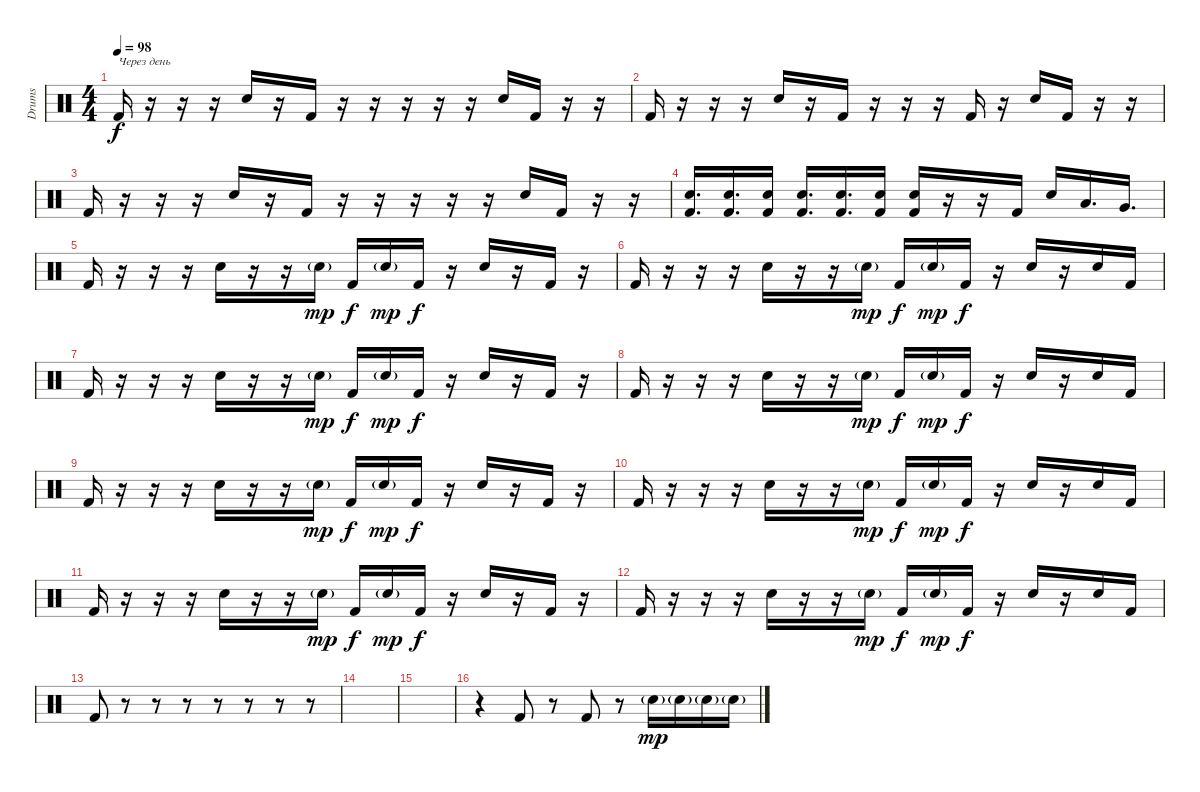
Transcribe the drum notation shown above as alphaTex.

\track ("Drums" "Drums") {instrument percussion}
\staff {score}
\articulation defaults
\ts (4 4)
\tempo 98
\clef neutral
\ks c "Kick (hit) 2".16{txt "Через день" dy f}
r.16 r.16 r.16 "Electric Snare (hit)".16 r.16 "Kick (hit) 2".16 r.16 r.16 r.16 r.16 r.16 "Electric Snare (hit)".16 "Kick (hit) 2".16 r.16 r.16 |
"Kick (hit) 2".16 r.16 r.16 r.16 "Electric Snare (hit)".16 r.16 "Kick (hit) 2".16 r.16 r.16 r.16 "Kick (hit) 2".16 r.16 "Electric Snare (hit)".16 "Kick (hit) 2".16 r.16 r.16 |
"Kick (hit) 2".16 r.16 r.16 r.16 "Electric Snare (hit)".16 r.16 "Kick (hit) 2".16 r.16 r.16 r.16 r.16 r.16 "Electric Snare (hit)".16 "Kick (hit) 2".16 r.16 r.16 |
("Kick (hit) 2" "Electric Snare (hit)").16{d} ("Kick (hit) 2" "Electric Snare (hit)").16{d} ("Kick (hit) 2" "Electric Snare (hit)").16 ("Kick (hit) 2" "Electric Snare (hit)").16{d} ("Kick (hit) 2" "Electric Snare (hit)").16{d} ("Kick (hit) 2" "Electric Snare (hit)").16 ("Kick (hit) 2" "Electric Snare (hit)").16 r.16 r.16 "Kick (hit) 2".16 "Electric Snare (hit)".16 "Low Tom (hit)".16{d} "Very Low Tom (hit)".16{d} |
"Kick (hit) 2".16 r.16 r.16 r.16 "Electric Snare (hit)".16 r.16 r.16 "Electric Snare (hit)"{g}.16{dy mp} "Kick (hit) 2".16{dy f} "Electric Snare (hit)"{g}.16{dy mp} "Kick (hit) 2".16{dy f} r.16 "Electric Snare (hit)".16 r.16 "Kick (hit) 2".16 r.16 |
"Kick (hit) 2".16 r.16 r.16 r.16 "Electric Snare (hit)".16 r.16 r.16 "Electric Snare (hit)"{g}.16{dy mp} "Kick (hit) 2".16{dy f} "Electric Snare (hit)"{g}.16{dy mp} "Kick (hit) 2".16{dy f} r.16 "Electric Snare (hit)".16 r.16 "Electric Snare (hit)".16 "Kick (hit) 2".16 |
"Kick (hit) 2".16 r.16 r.16 r.16 "Electric Snare (hit)".16 r.16 r.16 "Electric Snare (hit)"{g}.16{dy mp} "Kick (hit) 2".16{dy f} "Electric Snare (hit)"{g}.16{dy mp} "Kick (hit) 2".16{dy f} r.16 "Electric Snare (hit)".16 r.16 "Kick (hit) 2".16 r.16 |
"Kick (hit) 2".16 r.16 r.16 r.16 "Electric Snare (hit)".16 r.16 r.16 "Electric Snare (hit)"{g}.16{dy mp} "Kick (hit) 2".16{dy f} "Electric Snare (hit)"{g}.16{dy mp} "Kick (hit) 2".16{dy f} r.16 "Electric Snare (hit)".16 r.16 "Electric Snare (hit)".16 "Kick (hit) 2".16 |
"Kick (hit) 2".16 r.16 r.16 r.16 "Electric Snare (hit)".16 r.16 r.16 "Electric Snare (hit)"{g}.16{dy mp} "Kick (hit) 2".16{dy f} "Electric Snare (hit)"{g}.16{dy mp} "Kick (hit) 2".16{dy f} r.16 "Electric Snare (hit)".16 r.16 "Kick (hit) 2".16 r.16 |
"Kick (hit) 2".16 r.16 r.16 r.16 "Electric Snare (hit)".16 r.16 r.16 "Electric Snare (hit)"{g}.16{dy mp} "Kick (hit) 2".16{dy f} "Electric Snare (hit)"{g}.16{dy mp} "Kick (hit) 2".16{dy f} r.16 "Electric Snare (hit)".16 r.16 "Electric Snare (hit)".16 "Kick (hit) 2".16 |
"Kick (hit) 2".16 r.16 r.16 r.16 "Electric Snare (hit)".16 r.16 r.16 "Electric Snare (hit)"{g}.16{dy mp} "Kick (hit) 2".16{dy f} "Electric Snare (hit)"{g}.16{dy mp} "Kick (hit) 2".16{dy f} r.16 "Electric Snare (hit)".16 r.16 "Kick (hit) 2".16 r.16 |
"Kick (hit) 2".16 r.16 r.16 r.16 "Electric Snare (hit)".16 r.16 r.16 "Electric Snare (hit)"{g}.16{dy mp} "Kick (hit) 2".16{dy f} "Electric Snare (hit)"{g}.16{dy mp} "Kick (hit) 2".16{dy f} r.16 "Electric Snare (hit)".16 r.16 "Electric Snare (hit)".16 "Kick (hit) 2".16 |
"Kick (hit) 2".8 r.8 r.8 r.8 r.8 r.8 r.8 r.8 |
|
|
r.4 "Kick (hit) 2".8 r.8 "Kick (hit) 2".8 r.8 "Electric Snare (hit)"{g}.16{dy mp} "Electric Snare (hit)"{g}.16 "Electric Snare (hit)"{g}.16 "Electric Snare (hit)"{g}.16
